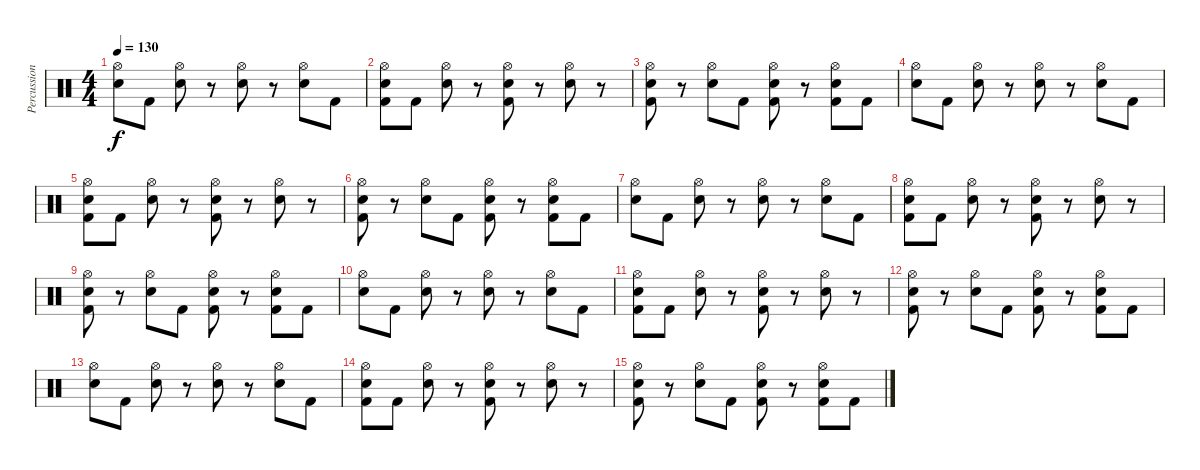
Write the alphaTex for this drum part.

\track ("Percussion" "Percussion") {instrument percussion}
\staff {score}
\articulation defaults
\ts (4 4)
\tempo 130
\clef neutral
\ks c
("Hi-Hat (open)" "Snare (hit) 2").8{dy f} "Kick (hit) 2".8 ("Hi-Hat (open)" "Snare (hit) 2").8 r.8 ("Hi-Hat (open)" "Snare (hit) 2").8 r.8 ("Hi-Hat (open)" "Snare (hit) 2").8 "Kick (hit) 2".8 |
("Hi-Hat (open)" "Snare (hit) 2" "Kick (hit) 2").8 "Kick (hit) 2".8 ("Hi-Hat (open)" "Snare (hit) 2").8 r.8 ("Hi-Hat (open)" "Snare (hit) 2" "Kick (hit) 2").8 r.8 ("Hi-Hat (open)" "Snare (hit) 2").8 r.8 |
("Hi-Hat (open)" "Snare (hit) 2" "Kick (hit) 2").8 r.8 ("Hi-Hat (open)" "Snare (hit) 2").8 "Kick (hit) 2".8 ("Hi-Hat (open)" "Snare (hit) 2" "Kick (hit) 2").8 r.8 ("Hi-Hat (open)" "Snare (hit) 2" "Kick (hit) 2").8 "Kick (hit) 2".8 |
("Hi-Hat (open)" "Snare (hit) 2").8 "Kick (hit) 2".8 ("Hi-Hat (open)" "Snare (hit) 2").8 r.8 ("Hi-Hat (open)" "Snare (hit) 2").8 r.8 ("Hi-Hat (open)" "Snare (hit) 2").8 "Kick (hit) 2".8 |
("Hi-Hat (open)" "Snare (hit) 2" "Kick (hit) 2").8 "Kick (hit) 2".8 ("Hi-Hat (open)" "Snare (hit) 2").8 r.8 ("Hi-Hat (open)" "Snare (hit) 2" "Kick (hit) 2").8 r.8 ("Hi-Hat (open)" "Snare (hit) 2").8 r.8 |
("Hi-Hat (open)" "Snare (hit) 2" "Kick (hit) 2").8 r.8 ("Hi-Hat (open)" "Snare (hit) 2").8 "Kick (hit) 2".8 ("Hi-Hat (open)" "Snare (hit) 2" "Kick (hit) 2").8 r.8 ("Hi-Hat (open)" "Snare (hit) 2" "Kick (hit) 2").8 "Kick (hit) 2".8 |
("Hi-Hat (open)" "Snare (hit) 2").8 "Kick (hit) 2".8 ("Hi-Hat (open)" "Snare (hit) 2").8 r.8 ("Hi-Hat (open)" "Snare (hit) 2").8 r.8 ("Hi-Hat (open)" "Snare (hit) 2").8 "Kick (hit) 2".8 |
("Hi-Hat (open)" "Snare (hit) 2" "Kick (hit) 2").8 "Kick (hit) 2".8 ("Hi-Hat (open)" "Snare (hit) 2").8 r.8 ("Hi-Hat (open)" "Snare (hit) 2" "Kick (hit) 2").8 r.8 ("Hi-Hat (open)" "Snare (hit) 2").8 r.8 |
("Hi-Hat (open)" "Snare (hit) 2" "Kick (hit) 2").8 r.8 ("Hi-Hat (open)" "Snare (hit) 2").8 "Kick (hit) 2".8 ("Hi-Hat (open)" "Snare (hit) 2" "Kick (hit) 2").8 r.8 ("Hi-Hat (open)" "Snare (hit) 2" "Kick (hit) 2").8 "Kick (hit) 2".8 |
("Hi-Hat (open)" "Snare (hit) 2").8 "Kick (hit) 2".8 ("Hi-Hat (open)" "Snare (hit) 2").8 r.8 ("Hi-Hat (open)" "Snare (hit) 2").8 r.8 ("Hi-Hat (open)" "Snare (hit) 2").8 "Kick (hit) 2".8 |
("Hi-Hat (open)" "Snare (hit) 2" "Kick (hit) 2").8 "Kick (hit) 2".8 ("Hi-Hat (open)" "Snare (hit) 2").8 r.8 ("Hi-Hat (open)" "Snare (hit) 2" "Kick (hit) 2").8 r.8 ("Hi-Hat (open)" "Snare (hit) 2").8 r.8 |
("Hi-Hat (open)" "Snare (hit) 2" "Kick (hit) 2").8 r.8 ("Hi-Hat (open)" "Snare (hit) 2").8 "Kick (hit) 2".8 ("Hi-Hat (open)" "Snare (hit) 2" "Kick (hit) 2").8 r.8 ("Hi-Hat (open)" "Snare (hit) 2" "Kick (hit) 2").8 "Kick (hit) 2".8 |
("Hi-Hat (open)" "Snare (hit) 2").8 "Kick (hit) 2".8 ("Hi-Hat (open)" "Snare (hit) 2").8 r.8 ("Hi-Hat (open)" "Snare (hit) 2").8 r.8 ("Hi-Hat (open)" "Snare (hit) 2").8 "Kick (hit) 2".8 |
("Hi-Hat (open)" "Snare (hit) 2" "Kick (hit) 2").8 "Kick (hit) 2".8 ("Hi-Hat (open)" "Snare (hit) 2").8 r.8 ("Hi-Hat (open)" "Snare (hit) 2" "Kick (hit) 2").8 r.8 ("Hi-Hat (open)" "Snare (hit) 2").8 r.8 |
("Hi-Hat (open)" "Snare (hit) 2" "Kick (hit) 2").8 r.8 ("Hi-Hat (open)" "Snare (hit) 2").8 "Kick (hit) 2".8 ("Hi-Hat (open)" "Snare (hit) 2" "Kick (hit) 2").8 r.8 ("Hi-Hat (open)" "Snare (hit) 2" "Kick (hit) 2").8 "Kick (hit) 2".8
